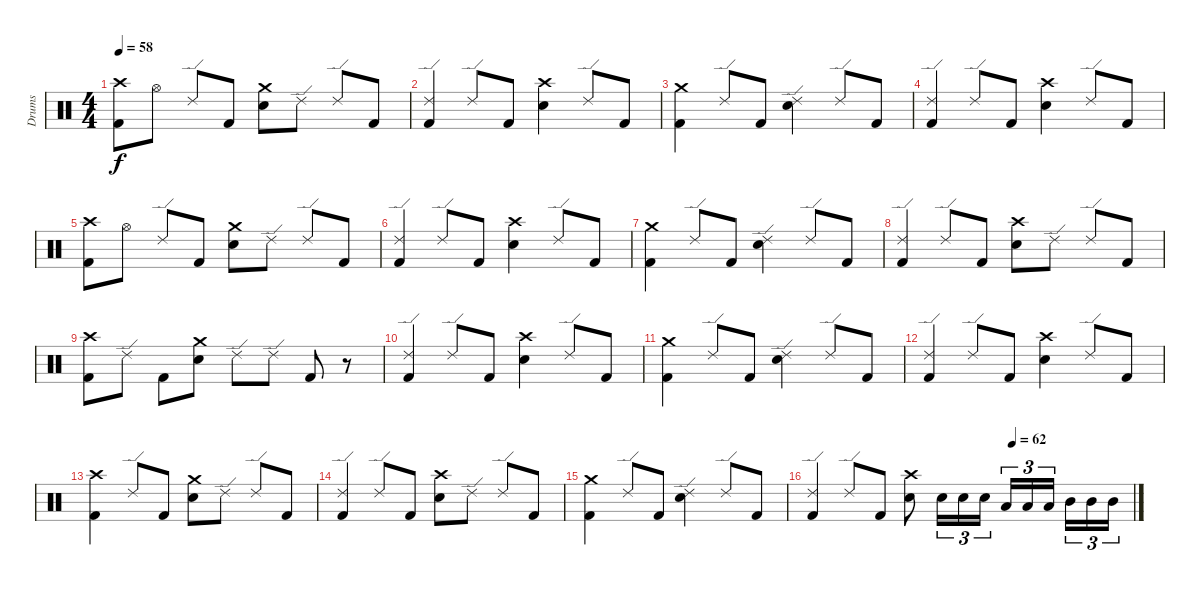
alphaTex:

\track ("Drums" "Drums") {instrument percussion}
\staff {score}
\articulation defaults
\ts (4 4)
\tempo 58
\clef neutral
\ks c
("Crash high (hit)" "Kick (hit) 2").8{dy f} "Hi-Hat (open)".8 "Ride (edge) 2".8 "Kick (hit) 2".8 ("Crash medium (hit)" "Electric Snare (hit)").8 "Ride (edge) 2".8 "Ride (edge) 2".8 "Kick (hit) 2".8 |
("Ride (edge) 2" "Kick (hit) 2").4 "Ride (edge) 2".8 "Kick (hit) 2".8 ("Crash high (hit)" "Electric Snare (hit)").4 "Ride (edge) 2".8 "Kick (hit) 2".8 |
("Crash medium (hit)" "Kick (hit) 2").4 "Ride (edge) 2".8 "Kick (hit) 2".8 ("Ride (edge) 2" "Electric Snare (hit)").4 "Ride (edge) 2".8 "Kick (hit) 2".8 |
("Ride (edge) 2" "Kick (hit) 2").4 "Ride (edge) 2".8 "Kick (hit) 2".8 ("Crash high (hit)" "Electric Snare (hit)").4 "Ride (edge) 2".8 "Kick (hit) 2".8 |
("Crash high (hit)" "Kick (hit) 2").8 "Hi-Hat (open)".8 "Ride (edge) 2".8 "Kick (hit) 2".8 ("Crash medium (hit)" "Electric Snare (hit)").8 "Ride (edge) 2".8 "Ride (edge) 2".8 "Kick (hit) 2".8 |
("Ride (edge) 2" "Kick (hit) 2").4 "Ride (edge) 2".8 "Kick (hit) 2".8 ("Crash high (hit)" "Electric Snare (hit)").4 "Ride (edge) 2".8 "Kick (hit) 2".8 |
("Crash medium (hit)" "Kick (hit) 2").4 "Ride (edge) 2".8 "Kick (hit) 2".8 ("Ride (edge) 2" "Electric Snare (hit)").4 "Ride (edge) 2".8 "Kick (hit) 2".8 |
("Ride (edge) 2" "Kick (hit) 2").4 "Ride (edge) 2".8 "Kick (hit) 2".8 ("Crash high (hit)" "Electric Snare (hit)").8 "Ride (edge) 2".8 "Ride (edge) 2".8 "Kick (hit) 2".8 |
("Crash high (hit)" "Kick (hit) 2").8 "Ride (edge) 2".8 "Kick (hit) 2".8 ("Crash medium (hit)" "Electric Snare (hit)").8 "Ride (edge) 2".8 "Ride (edge) 2".8 "Kick (hit) 2".8 r.8 |
("Ride (edge) 2" "Kick (hit) 2").4 "Ride (edge) 2".8 "Kick (hit) 2".8 ("Crash high (hit)" "Electric Snare (hit)").4 "Ride (edge) 2".8 "Kick (hit) 2".8 |
("Crash medium (hit)" "Kick (hit) 2").4 "Ride (edge) 2".8 "Kick (hit) 2".8 ("Ride (edge) 2" "Electric Snare (hit)").4 "Ride (edge) 2".8 "Kick (hit) 2".8 |
("Ride (edge) 2" "Kick (hit) 2").4 "Ride (edge) 2".8 "Kick (hit) 2".8 ("Crash high (hit)" "Electric Snare (hit)").4 "Ride (edge) 2".8 "Kick (hit) 2".8 |
("Crash high (hit)" "Kick (hit) 2").4 "Ride (edge) 2".8 "Kick (hit) 2".8 ("Crash medium (hit)" "Electric Snare (hit)").8 "Ride (edge) 2".8 "Ride (edge) 2".8 "Kick (hit) 2".8 |
("Ride (edge) 2" "Kick (hit) 2").4 "Ride (edge) 2".8 "Kick (hit) 2".8 ("Crash high (hit)" "Electric Snare (hit)").8 "Ride (edge) 2".8 "Ride (edge) 2".8 "Kick (hit) 2".8 |
("Crash medium (hit)" "Kick (hit) 2").4 "Ride (edge) 2".8 "Kick (hit) 2".8 ("Ride (edge) 2" "Electric Snare (hit)").4 "Ride (edge) 2".8 "Kick (hit) 2".8 |
\tempo (62 0.625)
("Ride (edge) 2" "Kick (hit) 2").4 "Ride (edge) 2".8 "Kick (hit) 2".8 ("Crash high (hit)" "Electric Snare (hit)").8 "Electric Snare (hit)".16{tu (3 2)} "Electric Snare (hit)".16{tu (3 2)} "Electric Snare (hit)".16{tu (3 2)} "Low Tom (hit)".16{tu (3 2)} "Low Tom (hit)".16{tu (3 2)} "Low Tom (hit)".16{tu (3 2) beam splitsecondary} "Mid Tom (hit)".16{tu (3 2)} "Mid Tom (hit)".16{tu (3 2)} "Mid Tom (hit)".16{tu (3 2)}
